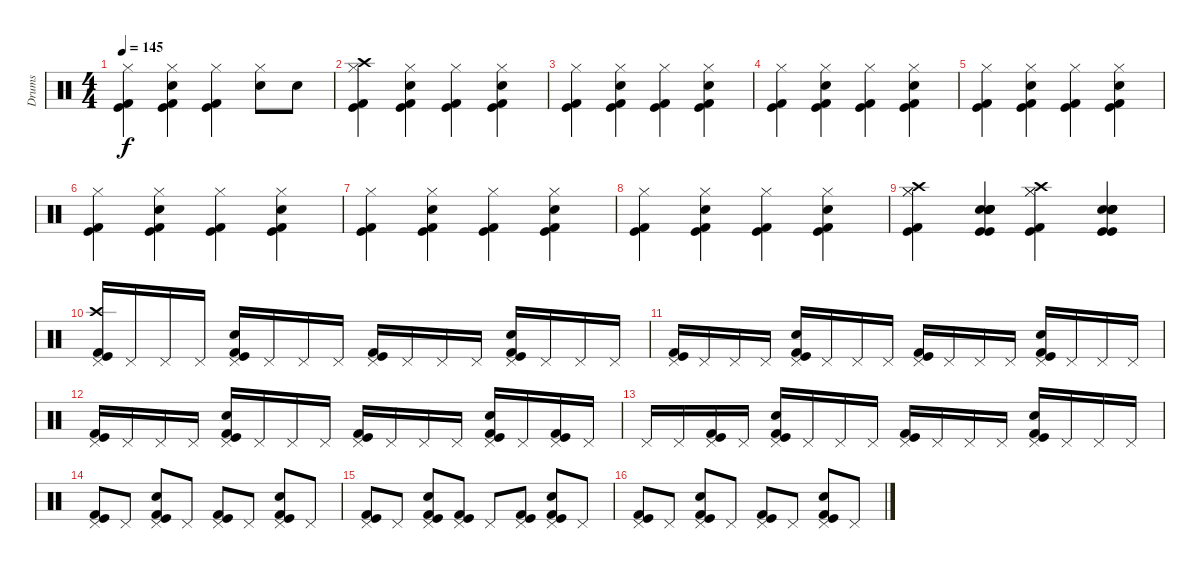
\track ("Drums" "Drums") {instrument percussion}
\staff {score}
\articulation defaults
\ts (4 4)
\tempo 145
\clef neutral
\ks c
("Hi-Hat (closed)" "Kick (hit) 2" "Kick (hit)").4{dy f} ("Hi-Hat (closed)" "Electric Snare (hit)" "Kick (hit) 2" "Kick (hit)").4 ("Hi-Hat (closed)" "Kick (hit) 2" "Kick (hit)").4 ("Hi-Hat (closed)" "Electric Snare (hit)").8 "Electric Snare (hit)".8 |
("Crash high (hit)" "Hi-Hat (closed)" "Kick (hit) 2" "Kick (hit)").4 ("Hi-Hat (closed)" "Electric Snare (hit)" "Kick (hit) 2" "Kick (hit)").4 ("Hi-Hat (closed)" "Kick (hit) 2" "Kick (hit)").4 ("Electric Snare (hit)" "Hi-Hat (closed)" "Kick (hit) 2" "Kick (hit)").4 |
("Kick (hit) 2" "Hi-Hat (closed)" "Kick (hit)").4 ("Electric Snare (hit)" "Hi-Hat (closed)" "Kick (hit) 2" "Kick (hit)").4 ("Hi-Hat (closed)" "Kick (hit) 2" "Kick (hit)").4 ("Hi-Hat (closed)" "Electric Snare (hit)" "Kick (hit) 2" "Kick (hit)").4 |
("Hi-Hat (closed)" "Kick (hit) 2" "Kick (hit)").4 ("Hi-Hat (closed)" "Electric Snare (hit)" "Kick (hit) 2" "Kick (hit)").4 ("Hi-Hat (closed)" "Kick (hit) 2" "Kick (hit)").4 ("Electric Snare (hit)" "Hi-Hat (closed)" "Kick (hit) 2" "Kick (hit)").4 |
("Kick (hit) 2" "Hi-Hat (closed)" "Kick (hit)").4 ("Electric Snare (hit)" "Hi-Hat (closed)" "Kick (hit) 2" "Kick (hit)").4 ("Hi-Hat (closed)" "Kick (hit) 2" "Kick (hit)").4 ("Hi-Hat (closed)" "Electric Snare (hit)" "Kick (hit) 2" "Kick (hit)").4 |
("Hi-Hat (closed)" "Kick (hit) 2" "Kick (hit)").4 ("Hi-Hat (closed)" "Electric Snare (hit)" "Kick (hit) 2" "Kick (hit)").4 ("Hi-Hat (closed)" "Kick (hit) 2" "Kick (hit)").4 ("Electric Snare (hit)" "Hi-Hat (closed)" "Kick (hit) 2" "Kick (hit)").4 |
("Kick (hit) 2" "Hi-Hat (closed)" "Kick (hit)").4 ("Electric Snare (hit)" "Hi-Hat (closed)" "Kick (hit) 2" "Kick (hit)").4 ("Hi-Hat (closed)" "Kick (hit) 2" "Kick (hit)").4 ("Hi-Hat (closed)" "Electric Snare (hit)" "Kick (hit) 2" "Kick (hit)").4 |
("Hi-Hat (closed)" "Kick (hit) 2" "Kick (hit)").4 ("Hi-Hat (closed)" "Electric Snare (hit)" "Kick (hit) 2" "Kick (hit)").4 ("Hi-Hat (closed)" "Kick (hit) 2" "Kick (hit)").4 ("Electric Snare (hit)" "Hi-Hat (closed)" "Kick (hit) 2" "Kick (hit)").4 |
("Crash high (hit)" "Hi-Hat (closed)" "Hi-Hat (closed)" "Kick (hit)" "Kick (hit) 2").4 ("Electric Snare (hit)" "Electric Snare (hit)" "Electric Snare (hit)" "Snare (hit) 2" "Kick (hit)" "Kick (hit)").4 ("Crash high (hit)" "Hi-Hat (closed)" "Hi-Hat (closed)" "Kick (hit)" "Kick (hit) 2").4 ("Electric Snare (hit)" "Electric Snare (hit)" "Electric Snare (hit)" "Snare (hit) 2" "Kick (hit)" "Kick (hit)").4 |
("Crash high (hit)" "Kick (hit) 2" "Pedal Hi-Hat (hit)" "Kick (hit)").16 "Pedal Hi-Hat (hit)".16 "Pedal Hi-Hat (hit)".16 "Pedal Hi-Hat (hit)".16 ("Pedal Hi-Hat (hit)" "Electric Snare (hit)" "Kick (hit) 2" "Kick (hit)").16 "Pedal Hi-Hat (hit)".16 "Pedal Hi-Hat (hit)".16 "Pedal Hi-Hat (hit)".16 ("Pedal Hi-Hat (hit)" "Kick (hit) 2" "Kick (hit)").16 "Pedal Hi-Hat (hit)".16 "Pedal Hi-Hat (hit)".16 "Pedal Hi-Hat (hit)".16 ("Electric Snare (hit)" "Pedal Hi-Hat (hit)" "Kick (hit) 2" "Kick (hit)").16 "Pedal Hi-Hat (hit)".16 "Pedal Hi-Hat (hit)".16 "Pedal Hi-Hat (hit)".16 |
("Kick (hit) 2" "Pedal Hi-Hat (hit)" "Kick (hit)").16 "Pedal Hi-Hat (hit)".16 "Pedal Hi-Hat (hit)".16 "Pedal Hi-Hat (hit)".16 ("Pedal Hi-Hat (hit)" "Electric Snare (hit)" "Kick (hit) 2" "Kick (hit)").16 "Pedal Hi-Hat (hit)".16 "Pedal Hi-Hat (hit)".16 "Pedal Hi-Hat (hit)".16 ("Pedal Hi-Hat (hit)" "Kick (hit) 2" "Kick (hit)").16 "Pedal Hi-Hat (hit)".16 "Pedal Hi-Hat (hit)".16 "Pedal Hi-Hat (hit)".16 ("Electric Snare (hit)" "Pedal Hi-Hat (hit)" "Kick (hit) 2" "Kick (hit)").16 "Pedal Hi-Hat (hit)".16 "Pedal Hi-Hat (hit)".16 "Pedal Hi-Hat (hit)".16 |
("Kick (hit) 2" "Pedal Hi-Hat (hit)" "Kick (hit)").16 "Pedal Hi-Hat (hit)".16 "Pedal Hi-Hat (hit)".16 "Pedal Hi-Hat (hit)".16 ("Pedal Hi-Hat (hit)" "Electric Snare (hit)" "Kick (hit) 2" "Kick (hit)").16 "Pedal Hi-Hat (hit)".16 "Pedal Hi-Hat (hit)".16 "Pedal Hi-Hat (hit)".16 ("Pedal Hi-Hat (hit)" "Kick (hit) 2" "Kick (hit)").16 "Pedal Hi-Hat (hit)".16 "Pedal Hi-Hat (hit)".16 "Pedal Hi-Hat (hit)".16 ("Electric Snare (hit)" "Pedal Hi-Hat (hit)" "Kick (hit) 2" "Kick (hit)").16 "Pedal Hi-Hat (hit)".16 ("Kick (hit) 2" "Pedal Hi-Hat (hit)" "Kick (hit)").16 "Pedal Hi-Hat (hit)".16 |
"Pedal Hi-Hat (hit)".16 "Pedal Hi-Hat (hit)".16 ("Pedal Hi-Hat (hit)" "Kick (hit) 2" "Kick (hit)").16 "Pedal Hi-Hat (hit)".16 ("Pedal Hi-Hat (hit)" "Electric Snare (hit)" "Kick (hit) 2" "Kick (hit)").16 "Pedal Hi-Hat (hit)".16 "Pedal Hi-Hat (hit)".16 "Pedal Hi-Hat (hit)".16 ("Pedal Hi-Hat (hit)" "Kick (hit) 2" "Kick (hit)").16 "Pedal Hi-Hat (hit)".16 "Pedal Hi-Hat (hit)".16 "Pedal Hi-Hat (hit)".16 ("Electric Snare (hit)" "Pedal Hi-Hat (hit)" "Kick (hit) 2" "Kick (hit)").16 "Pedal Hi-Hat (hit)".16 "Pedal Hi-Hat (hit)".16 "Pedal Hi-Hat (hit)".16 |
("Kick (hit) 2" "Pedal Hi-Hat (hit)" "Kick (hit)").8 "Pedal Hi-Hat (hit)".8 ("Pedal Hi-Hat (hit)" "Electric Snare (hit)" "Kick (hit) 2" "Kick (hit)").8 "Pedal Hi-Hat (hit)".8 ("Pedal Hi-Hat (hit)" "Kick (hit) 2" "Kick (hit)").8 "Pedal Hi-Hat (hit)".8 ("Pedal Hi-Hat (hit)" "Electric Snare (hit)" "Kick (hit) 2" "Kick (hit)").8 "Pedal Hi-Hat (hit)".8 |
("Kick (hit) 2" "Pedal Hi-Hat (hit)" "Kick (hit)").8 "Pedal Hi-Hat (hit)".8 ("Pedal Hi-Hat (hit)" "Electric Snare (hit)" "Kick (hit) 2" "Kick (hit)").8 ("Kick (hit) 2" "Pedal Hi-Hat (hit)" "Kick (hit)").8 "Pedal Hi-Hat (hit)".8 ("Pedal Hi-Hat (hit)" "Kick (hit) 2" "Kick (hit)").8 ("Electric Snare (hit)" "Pedal Hi-Hat (hit)" "Kick (hit) 2" "Kick (hit)").8 "Pedal Hi-Hat (hit)".8 |
("Kick (hit) 2" "Pedal Hi-Hat (hit)" "Kick (hit)").8 "Pedal Hi-Hat (hit)".8 ("Electric Snare (hit)" "Pedal Hi-Hat (hit)" "Kick (hit) 2" "Kick (hit)").8 "Pedal Hi-Hat (hit)".8 ("Kick (hit) 2" "Pedal Hi-Hat (hit)" "Kick (hit)").8 "Pedal Hi-Hat (hit)".8 ("Electric Snare (hit)" "Pedal Hi-Hat (hit)" "Kick (hit) 2" "Kick (hit)").8 "Pedal Hi-Hat (hit)".8
